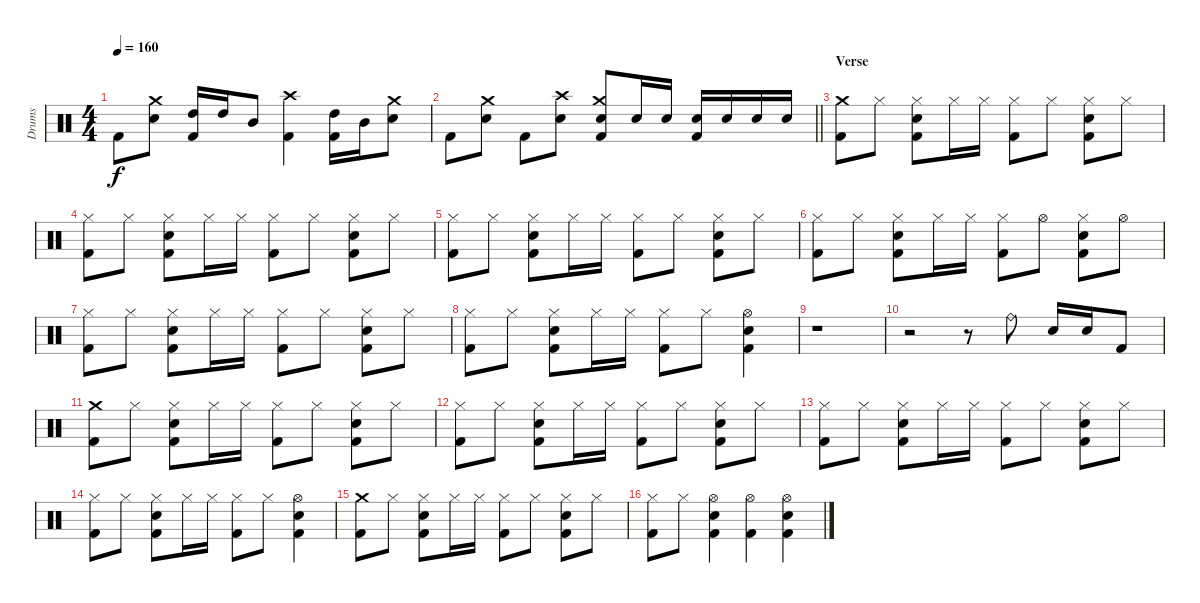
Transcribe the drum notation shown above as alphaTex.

\track ("Drums" "Drums") {instrument percussion}
\staff {score}
\articulation defaults
\ts (4 4)
\tempo 160
\clef neutral
\ks c "Kick (hit) 2".8{dy f}
("Crash medium (hit)" "Snare (hit) 2").8 ("High Tom (hit)" "Kick (hit) 2").16 "High Tom (hit)".16 "Mid Tom (hit)".8 ("Crash high (hit)" "Kick (hit) 2").4 ("High Tom (hit)" "Kick (hit) 2").16 "Mid Tom (hit)".16 ("Crash medium (hit)" "Snare (hit) 2").8 |
\barLineRight lightlight "Kick (hit) 2".8
("Crash medium (hit)" "Snare (hit) 2").8 "Kick (hit) 2".8 ("Crash high (hit)" "Snare (hit) 2").8 ("Crash medium (hit)" "Snare (hit) 2" "Kick (hit) 2").8 "Snare (hit) 2".16 "Snare (hit) 2".16 ("Snare (hit) 2" "Kick (hit) 2").16 "Snare (hit) 2".16 "Snare (hit) 2".16 "Snare (hit) 2".16 |
\section ("" "Verse")
("Crash medium (hit)" "Kick (hit) 2").8 "Hi-Hat (closed)".8 ("Hi-Hat (closed)" "Snare (hit) 2" "Kick (hit) 2").8 "Hi-Hat (closed)".16 "Hi-Hat (closed)".16 ("Hi-Hat (closed)" "Kick (hit) 2").8 "Hi-Hat (closed)".8 ("Hi-Hat (closed)" "Snare (hit) 2" "Kick (hit) 2").8 "Hi-Hat (closed)".8 |
("Hi-Hat (closed)" "Kick (hit) 2").8 "Hi-Hat (closed)".8 ("Hi-Hat (closed)" "Snare (hit) 2" "Kick (hit) 2").8 "Hi-Hat (closed)".16 "Hi-Hat (closed)".16 ("Hi-Hat (closed)" "Kick (hit) 2").8 "Hi-Hat (closed)".8 ("Hi-Hat (closed)" "Snare (hit) 2" "Kick (hit) 2").8 "Hi-Hat (closed)".8 |
("Hi-Hat (closed)" "Kick (hit) 2").8 "Hi-Hat (closed)".8 ("Hi-Hat (closed)" "Snare (hit) 2" "Kick (hit) 2").8 "Hi-Hat (closed)".16 "Hi-Hat (closed)".16 ("Hi-Hat (closed)" "Kick (hit) 2").8 "Hi-Hat (closed)".8 ("Hi-Hat (closed)" "Snare (hit) 2" "Kick (hit) 2").8 "Hi-Hat (closed)".8 |
("Hi-Hat (closed)" "Kick (hit) 2").8 "Hi-Hat (closed)".8 ("Hi-Hat (closed)" "Snare (hit) 2" "Kick (hit) 2").8 "Hi-Hat (closed)".16 "Hi-Hat (closed)".16 ("Hi-Hat (closed)" "Kick (hit) 2").8 "Hi-Hat (open)".8 ("Hi-Hat (closed)" "Snare (hit) 2" "Kick (hit) 2").8 "Hi-Hat (open)".8 |
("Hi-Hat (closed)" "Kick (hit) 2").8 "Hi-Hat (closed)".8 ("Hi-Hat (closed)" "Snare (hit) 2" "Kick (hit) 2").8 "Hi-Hat (closed)".16 "Hi-Hat (closed)".16 ("Hi-Hat (closed)" "Kick (hit) 2").8 "Hi-Hat (closed)".8 ("Hi-Hat (closed)" "Snare (hit) 2" "Kick (hit) 2").8 "Hi-Hat (closed)".8 |
("Hi-Hat (closed)" "Kick (hit) 2").8 "Hi-Hat (closed)".8 ("Hi-Hat (closed)" "Snare (hit) 2" "Kick (hit) 2").8 "Hi-Hat (closed)".16 "Hi-Hat (closed)".16 ("Hi-Hat (closed)" "Kick (hit) 2").8 "Hi-Hat (closed)".8 ("Hi-Hat (open)" "Snare (hit) 2" "Kick (hit) 2").4 |
r.1 |
r.2 r.8 "Ride (bell)".8 "Snare (hit) 2".16 "Snare (hit) 2".16 "Kick (hit) 2".8 |
("Crash medium (hit)" "Kick (hit) 2").8 "Hi-Hat (closed)".8 ("Hi-Hat (closed)" "Snare (hit) 2" "Kick (hit) 2").8 "Hi-Hat (closed)".16 "Hi-Hat (closed)".16 ("Hi-Hat (closed)" "Kick (hit) 2").8 "Hi-Hat (closed)".8 ("Hi-Hat (closed)" "Snare (hit) 2" "Kick (hit) 2").8 "Hi-Hat (closed)".8 |
("Hi-Hat (closed)" "Kick (hit) 2").8 "Hi-Hat (closed)".8 ("Hi-Hat (closed)" "Snare (hit) 2" "Kick (hit) 2").8 "Hi-Hat (closed)".16 "Hi-Hat (closed)".16 ("Hi-Hat (closed)" "Kick (hit) 2").8 "Hi-Hat (closed)".8 ("Hi-Hat (closed)" "Snare (hit) 2" "Kick (hit) 2").8 "Hi-Hat (closed)".8 |
("Hi-Hat (closed)" "Kick (hit) 2").8 "Hi-Hat (closed)".8 ("Hi-Hat (closed)" "Snare (hit) 2" "Kick (hit) 2").8 "Hi-Hat (closed)".16 "Hi-Hat (closed)".16 ("Hi-Hat (closed)" "Kick (hit) 2").8 "Hi-Hat (closed)".8 ("Hi-Hat (closed)" "Snare (hit) 2" "Kick (hit) 2").8 "Hi-Hat (closed)".8 |
("Hi-Hat (closed)" "Kick (hit) 2").8 "Hi-Hat (closed)".8 ("Hi-Hat (closed)" "Snare (hit) 2" "Kick (hit) 2").8 "Hi-Hat (closed)".16 "Hi-Hat (closed)".16 ("Hi-Hat (closed)" "Kick (hit) 2").8 "Hi-Hat (closed)".8 ("Hi-Hat (open)" "Snare (hit) 2" "Kick (hit) 2").4 |
("Crash medium (hit)" "Kick (hit) 2").8 "Hi-Hat (closed)".8 ("Hi-Hat (closed)" "Snare (hit) 2" "Kick (hit) 2").8 "Hi-Hat (closed)".16 "Hi-Hat (closed)".16 ("Hi-Hat (closed)" "Kick (hit) 2").8 "Hi-Hat (closed)".8 ("Hi-Hat (closed)" "Snare (hit) 2" "Kick (hit) 2").8 "Hi-Hat (closed)".8 |
("Hi-Hat (closed)" "Kick (hit) 2").8 "Hi-Hat (closed)".8 ("Hi-Hat (open)" "Snare (hit) 2" "Kick (hit) 2").4 ("Hi-Hat (open)" "Kick (hit) 2").4 ("Hi-Hat (open)" "Snare (hit) 2" "Kick (hit) 2").4
